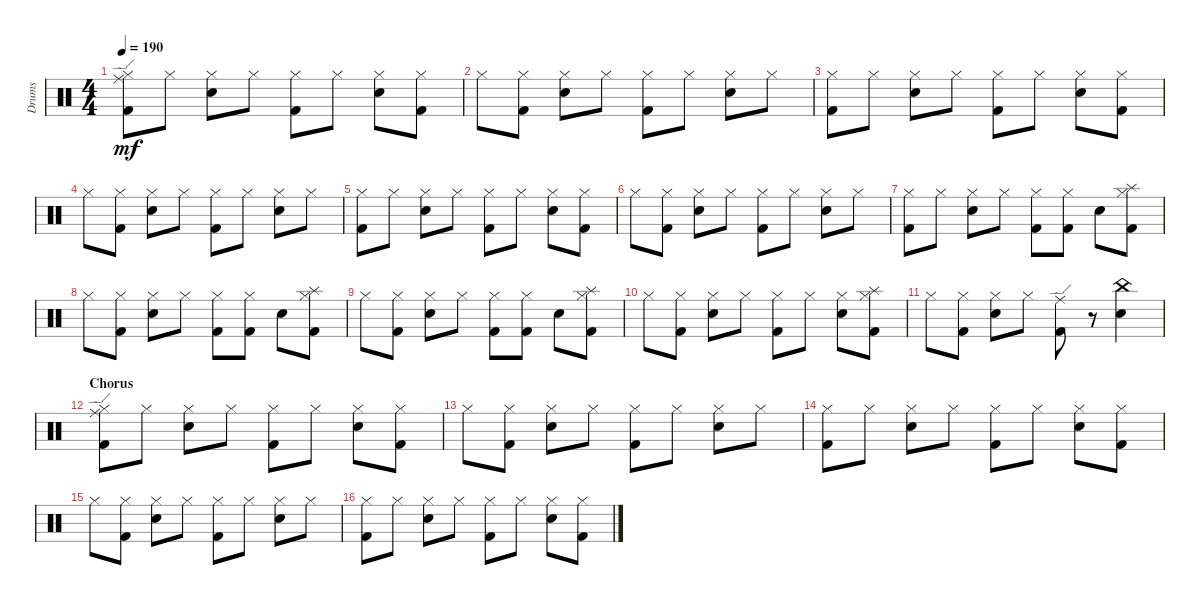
\defaultSystemsLayout 4
\bracketExtendMode groupsimilarinstruments
\otherSystemsTrackNameOrientation horizontal
\track ("Prakarsh" "Drums") {instrument percussion}
\staff {score}
\articulation defaults
\ts (4 4)
\tempo 190
\clef neutral
\ks c
("Kick (hit) 2" "Hi-Hat (closed)" "Ride (edge)").8{dy mf beam Down} "Hi-Hat (closed)".8{beam Down} ("Hi-Hat (closed)" "Snare (hit) 2").8{beam Down} "Hi-Hat (closed)".8{beam Down} ("Hi-Hat (closed)" "Kick (hit) 2").8{beam Down} "Hi-Hat (closed)".8{beam Down} ("Hi-Hat (closed)" "Snare (hit) 2").8{beam Down} ("Hi-Hat (closed)" "Kick (hit) 2").8{beam Down} |
"Hi-Hat (closed)".8{beam Down} ("Hi-Hat (closed)" "Kick (hit) 2").8{beam Down} ("Hi-Hat (closed)" "Snare (hit) 2").8{beam Down} "Hi-Hat (closed)".8{beam Down} ("Hi-Hat (closed)" "Kick (hit) 2").8{beam Down} "Hi-Hat (closed)".8{beam Down} ("Hi-Hat (closed)" "Snare (hit) 2").8{beam Down} "Hi-Hat (closed)".8{beam Down} |
("Kick (hit) 2" "Hi-Hat (closed)").8{beam Down} "Hi-Hat (closed)".8{beam Down} ("Hi-Hat (closed)" "Snare (hit) 2").8{beam Down} "Hi-Hat (closed)".8{beam Down} ("Hi-Hat (closed)" "Kick (hit) 2").8{beam Down} "Hi-Hat (closed)".8{beam Down} ("Hi-Hat (closed)" "Snare (hit) 2").8{beam Down} ("Hi-Hat (closed)" "Kick (hit) 2").8{beam Down} |
"Hi-Hat (closed)".8{beam Down} ("Hi-Hat (closed)" "Kick (hit) 2").8{beam Down} ("Hi-Hat (closed)" "Snare (hit) 2").8{beam Down} "Hi-Hat (closed)".8{beam Down} ("Hi-Hat (closed)" "Kick (hit) 2").8{beam Down} "Hi-Hat (closed)".8{beam Down} ("Hi-Hat (closed)" "Snare (hit) 2").8{beam Down} "Hi-Hat (closed)".8{beam Down} |
("Kick (hit) 2" "Hi-Hat (closed)").8{beam Down} "Hi-Hat (closed)".8{beam Down} ("Hi-Hat (closed)" "Snare (hit) 2").8{beam Down} "Hi-Hat (closed)".8{beam Down} ("Hi-Hat (closed)" "Kick (hit) 2").8{beam Down} "Hi-Hat (closed)".8{beam Down} ("Hi-Hat (closed)" "Snare (hit) 2").8{beam Down} ("Hi-Hat (closed)" "Kick (hit) 2").8{beam Down} |
"Hi-Hat (closed)".8{beam Down} ("Hi-Hat (closed)" "Kick (hit) 2").8{beam Down} ("Hi-Hat (closed)" "Snare (hit) 2").8{beam Down} "Hi-Hat (closed)".8{beam Down} ("Hi-Hat (closed)" "Kick (hit) 2").8{beam Down} "Hi-Hat (closed)".8{beam Down} ("Hi-Hat (closed)" "Snare (hit) 2").8{beam Down} "Hi-Hat (closed)".8{beam Down} |
("Kick (hit) 2" "Hi-Hat (closed)").8{beam Down} "Hi-Hat (closed)".8{beam Down} ("Hi-Hat (closed)" "Snare (hit) 2").8{beam Down} "Hi-Hat (closed)".8{beam Down} ("Hi-Hat (closed)" "Kick (hit) 2").8{beam Down} ("Hi-Hat (closed)" "Kick (hit) 2").8{beam Down} "Snare (hit) 2".8{beam Down} ("Hi-Hat (closed)" "Kick (hit) 2" "Splash (hit)").8{beam Down} |
"Hi-Hat (closed)".8{beam Down} ("Hi-Hat (closed)" "Kick (hit) 2").8{beam Down} ("Hi-Hat (closed)" "Snare (hit) 2").8{beam Down} "Hi-Hat (closed)".8{beam Down} ("Hi-Hat (closed)" "Kick (hit) 2").8{beam Down} ("Hi-Hat (closed)" "Kick (hit) 2").8{beam Down} "Snare (hit) 2".8{beam Down} ("Hi-Hat (closed)" "Kick (hit) 2" "Splash (hit)").8{beam Down} |
"Hi-Hat (closed)".8{beam Down} ("Hi-Hat (closed)" "Kick (hit) 2").8{beam Down} ("Hi-Hat (closed)" "Snare (hit) 2").8{beam Down} "Hi-Hat (closed)".8{beam Down} ("Hi-Hat (closed)" "Kick (hit) 2").8{beam Down} ("Hi-Hat (closed)" "Kick (hit) 2").8{beam Down} "Snare (hit) 2".8{beam Down} ("Hi-Hat (closed)" "Kick (hit) 2" "Splash (hit)").8{beam Down} |
"Hi-Hat (closed)".8{beam Down} ("Hi-Hat (closed)" "Kick (hit) 2").8{beam Down} ("Hi-Hat (closed)" "Snare (hit) 2").8{beam Down} "Hi-Hat (closed)".8{beam Down} ("Hi-Hat (closed)" "Kick (hit) 2").8{beam Down} "Hi-Hat (closed)".8{beam Down} ("Hi-Hat (closed)" "Snare (hit) 2").8{beam Down} ("Hi-Hat (closed)" "Splash (hit)" "Kick (hit) 2").8{beam Down} |
"Hi-Hat (closed)".8{beam Down} ("Hi-Hat (closed)" "Kick (hit) 2").8{beam Down} ("Hi-Hat (closed)" "Snare (hit) 2").8{beam Down} "Hi-Hat (closed)".8{beam Down} ("Kick (hit) 2" "Ride (edge)").8{beam Down} r.8{beam Down} ("Snare (hit) 2" "China (hit)").4{beam Down} |
\section ("" "Chorus")
("Kick (hit) 2" "Hi-Hat (closed)" "Ride (edge)").8{beam Down} "Hi-Hat (closed)".8{beam Down} ("Hi-Hat (closed)" "Snare (hit) 2").8{beam Down} "Hi-Hat (closed)".8{beam Down} ("Hi-Hat (closed)" "Kick (hit) 2").8{beam Down} "Hi-Hat (closed)".8{beam Down} ("Hi-Hat (closed)" "Snare (hit) 2").8{beam Down} ("Hi-Hat (closed)" "Kick (hit) 2").8{beam Down} |
"Hi-Hat (closed)".8{beam Down} ("Hi-Hat (closed)" "Kick (hit) 2").8{beam Down} ("Hi-Hat (closed)" "Snare (hit) 2").8{beam Down} "Hi-Hat (closed)".8{beam Down} ("Hi-Hat (closed)" "Kick (hit) 2").8{beam Down} "Hi-Hat (closed)".8{beam Down} ("Hi-Hat (closed)" "Snare (hit) 2").8{beam Down} "Hi-Hat (closed)".8{beam Down} |
("Kick (hit) 2" "Hi-Hat (closed)").8{beam Down} "Hi-Hat (closed)".8{beam Down} ("Hi-Hat (closed)" "Snare (hit) 2").8{beam Down} "Hi-Hat (closed)".8{beam Down} ("Hi-Hat (closed)" "Kick (hit) 2").8{beam Down} "Hi-Hat (closed)".8{beam Down} ("Hi-Hat (closed)" "Snare (hit) 2").8{beam Down} ("Hi-Hat (closed)" "Kick (hit) 2").8{beam Down} |
"Hi-Hat (closed)".8{beam Down} ("Hi-Hat (closed)" "Kick (hit) 2").8{beam Down} ("Hi-Hat (closed)" "Snare (hit) 2").8{beam Down} "Hi-Hat (closed)".8{beam Down} ("Hi-Hat (closed)" "Kick (hit) 2").8{beam Down} "Hi-Hat (closed)".8{beam Down} ("Hi-Hat (closed)" "Snare (hit) 2").8{beam Down} "Hi-Hat (closed)".8{beam Down} |
("Kick (hit) 2" "Hi-Hat (closed)").8{beam Down} "Hi-Hat (closed)".8{beam Down} ("Hi-Hat (closed)" "Snare (hit) 2").8{beam Down} "Hi-Hat (closed)".8{beam Down} ("Hi-Hat (closed)" "Kick (hit) 2").8{beam Down} "Hi-Hat (closed)".8{beam Down} ("Hi-Hat (closed)" "Snare (hit) 2").8{beam Down} ("Hi-Hat (closed)" "Kick (hit) 2").8{beam Down}
